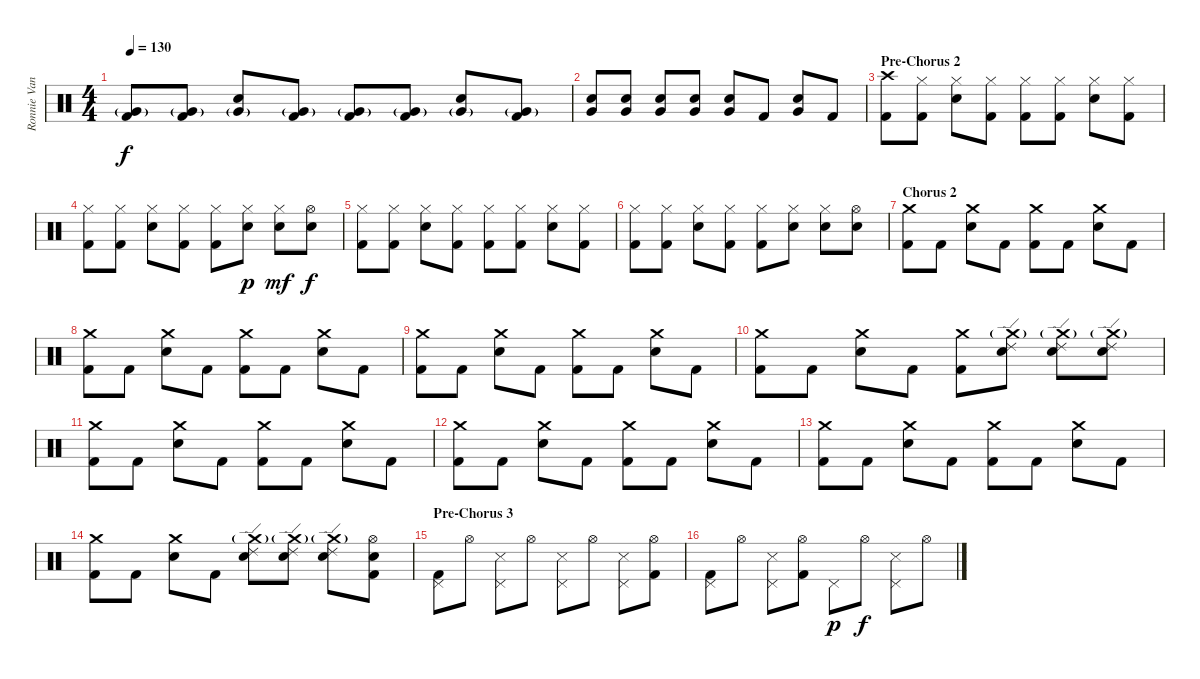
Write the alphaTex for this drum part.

\track ("Ronnie Vannucci Jr." "Ronnie Van") {instrument percussion}
\staff {score}
\articulation defaults
\ts (4 4)
\tempo 130
\clef neutral
\ks c
("Very Low Tom (hit)"{g} "Kick (hit) 2").8{dy f} ("Very Low Tom (hit)"{g} "Kick (hit) 2").8 ("Very Low Tom (hit)"{g} "Electric Snare (hit)").8 ("Very Low Tom (hit)"{g} "Kick (hit) 2").8 ("Very Low Tom (hit)"{g} "Kick (hit) 2").8 ("Very Low Tom (hit)"{g} "Kick (hit) 2").8 ("Very Low Tom (hit)"{g} "Electric Snare (hit)").8 ("Very Low Tom (hit)"{g} "Kick (hit) 2").8 |
("Very Low Tom (hit)" "Electric Snare (hit)").8 ("Very Low Tom (hit)" "Electric Snare (hit)").8 ("Very Low Tom (hit)" "Electric Snare (hit)").8 ("Very Low Tom (hit)" "Electric Snare (hit)").8 ("Very Low Tom (hit)" "Electric Snare (hit)").8 "Kick (hit) 2".8 ("Very Low Tom (hit)" "Electric Snare (hit)").8 "Kick (hit) 2".8 |
\section ("" "Pre-Chorus 2")
("Crash high (hit)" "Kick (hit) 2").8 ("Hi-Hat (closed)" "Kick (hit) 2").8 ("Hi-Hat (closed)" "Electric Snare (hit)").8 ("Hi-Hat (closed)" "Kick (hit) 2").8 ("Hi-Hat (closed)" "Kick (hit) 2").8 ("Hi-Hat (closed)" "Kick (hit) 2").8 ("Hi-Hat (closed)" "Electric Snare (hit)").8 ("Hi-Hat (closed)" "Kick (hit) 2").8 |
("Hi-Hat (closed)" "Kick (hit) 2").8 ("Hi-Hat (closed)" "Kick (hit) 2").8 ("Hi-Hat (closed)" "Electric Snare (hit)").8 ("Hi-Hat (closed)" "Kick (hit) 2").8 ("Hi-Hat (closed)" "Kick (hit) 2").8 ("Hi-Hat (closed)" "Electric Snare (hit)").8{dy p} ("Hi-Hat (closed)" "Electric Snare (hit)").8{dy mf} ("Hi-Hat (open)" "Electric Snare (hit)").8{dy f} |
("Hi-Hat (closed)" "Kick (hit) 2").8 ("Hi-Hat (closed)" "Kick (hit) 2").8 ("Hi-Hat (closed)" "Electric Snare (hit)").8 ("Hi-Hat (closed)" "Kick (hit) 2").8 ("Hi-Hat (closed)" "Kick (hit) 2").8 ("Hi-Hat (closed)" "Kick (hit) 2").8 ("Hi-Hat (closed)" "Electric Snare (hit)").8 ("Hi-Hat (closed)" "Kick (hit) 2").8 |
("Hi-Hat (closed)" "Kick (hit) 2").8 ("Hi-Hat (closed)" "Kick (hit) 2").8 ("Hi-Hat (closed)" "Electric Snare (hit)").8 ("Hi-Hat (closed)" "Kick (hit) 2").8 ("Hi-Hat (closed)" "Kick (hit) 2").8 ("Hi-Hat (closed)" "Electric Snare (hit)").8 ("Hi-Hat (closed)" "Electric Snare (hit)").8 ("Hi-Hat (open)" "Electric Snare (hit)").8 |
\section ("" "Chorus 2")
("Crash medium (hit)" "Kick (hit) 2").8 "Kick (hit) 2".8 ("Crash medium (hit)" "Electric Snare (hit)").8 "Kick (hit) 2".8 ("Crash medium (hit)" "Kick (hit) 2").8 "Kick (hit) 2".8 ("Crash medium (hit)" "Electric Snare (hit)").8 "Kick (hit) 2".8 |
("Crash medium (hit)" "Kick (hit) 2").8 "Kick (hit) 2".8 ("Crash medium (hit)" "Electric Snare (hit)").8 "Kick (hit) 2".8 ("Crash medium (hit)" "Kick (hit) 2").8 "Kick (hit) 2".8 ("Crash medium (hit)" "Electric Snare (hit)").8 "Kick (hit) 2".8 |
("Crash medium (hit)" "Kick (hit) 2").8 "Kick (hit) 2".8 ("Crash medium (hit)" "Electric Snare (hit)").8 "Kick (hit) 2".8 ("Crash medium (hit)" "Kick (hit) 2").8 "Kick (hit) 2".8 ("Crash medium (hit)" "Electric Snare (hit)").8 "Kick (hit) 2".8 |
("Crash medium (hit)" "Kick (hit) 2").8 "Kick (hit) 2".8 ("Crash medium (hit)" "Electric Snare (hit)").8 "Kick (hit) 2".8 ("Crash medium (hit)" "Kick (hit) 2").8 ("Crash medium (hit)"{g} "Ride (edge) 2" "Electric Snare (hit)").8 ("Crash medium (hit)"{g} "Ride (edge) 2" "Electric Snare (hit)").8 ("Crash medium (hit)"{g} "Ride (edge) 2" "Electric Snare (hit)").8 |
("Crash medium (hit)" "Kick (hit) 2").8 "Kick (hit) 2".8 ("Crash medium (hit)" "Electric Snare (hit)").8 "Kick (hit) 2".8 ("Crash medium (hit)" "Kick (hit) 2").8 "Kick (hit) 2".8 ("Crash medium (hit)" "Electric Snare (hit)").8 "Kick (hit) 2".8 |
("Crash medium (hit)" "Kick (hit) 2").8 "Kick (hit) 2".8 ("Crash medium (hit)" "Electric Snare (hit)").8 "Kick (hit) 2".8 ("Crash medium (hit)" "Kick (hit) 2").8 "Kick (hit) 2".8 ("Crash medium (hit)" "Electric Snare (hit)").8 "Kick (hit) 2".8 |
("Crash medium (hit)" "Kick (hit) 2").8 "Kick (hit) 2".8 ("Crash medium (hit)" "Electric Snare (hit)").8 "Kick (hit) 2".8 ("Crash medium (hit)" "Kick (hit) 2").8 "Kick (hit) 2".8 ("Crash medium (hit)" "Electric Snare (hit)").8 "Kick (hit) 2".8 |
("Crash medium (hit)" "Kick (hit) 2").8 "Kick (hit) 2".8 ("Crash medium (hit)" "Electric Snare (hit)").8 "Kick (hit) 2".8 ("Crash medium (hit)"{g} "Ride (edge) 2" "Electric Snare (hit)").8 ("Crash medium (hit)"{g} "Ride (edge) 2" "Electric Snare (hit)").8 ("Crash medium (hit)"{g} "Ride (edge) 2" "Electric Snare (hit)").8 ("Hi-Hat (open)" "Electric Snare (hit)" "Kick (hit) 2").8 |
\section ("" "Pre-Chorus 3")
("Pedal Hi-Hat (hit)" "Kick (hit) 2").8 "Hi-Hat (open)".8 ("Pedal Hi-Hat (hit)" "Snare (side stick) 3").8 "Hi-Hat (open)".8 ("Pedal Hi-Hat (hit)" "Snare (side stick) 3").8 "Hi-Hat (open)".8 ("Pedal Hi-Hat (hit)" "Snare (side stick) 3").8 ("Hi-Hat (open)" "Kick (hit) 2").8 |
("Pedal Hi-Hat (hit)" "Kick (hit) 2").8 "Hi-Hat (open)".8 ("Pedal Hi-Hat (hit)" "Snare (side stick) 3").8 ("Hi-Hat (open)" "Kick (hit) 2").8 "Pedal Hi-Hat (hit)".8{dy p} "Hi-Hat (open)".8{dy f} ("Pedal Hi-Hat (hit)" "Snare (side stick) 3").8 "Hi-Hat (open)".8
